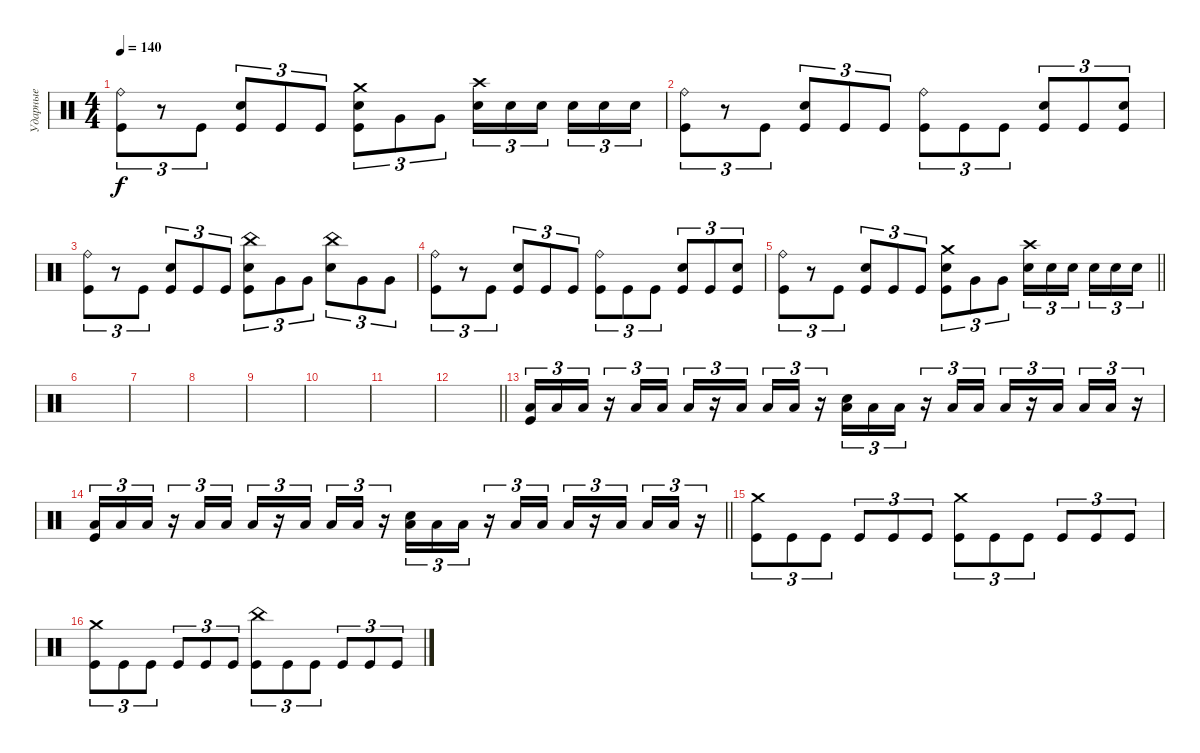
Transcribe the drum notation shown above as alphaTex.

\track ("Ударные" "Ударные") {instrument percussion}
\staff {score}
\articulation defaults
\ts (4 4)
\tempo 140
\clef neutral
\ks c
("Ride (bell)" "Kick (hit)").8{tu (3 2) dy f} r.8{tu (3 2)} "Kick (hit)".8{tu (3 2)} ("Electric Snare (hit)" "Kick (hit)").8{tu (3 2)} "Kick (hit)".8{tu (3 2)} "Kick (hit)".8{tu (3 2)} ("Electric Snare (hit)" "Kick (hit)" "Crash medium (hit)").8{tu (3 2)} "Very Low Tom (hit)".8{tu (3 2)} "Very Low Tom (hit)".8{tu (3 2)} ("Electric Snare (hit)" "Crash high (hit)").16{tu (3 2)} "Electric Snare (hit)".16{tu (3 2)} "Electric Snare (hit)".16{tu (3 2) beam splitsecondary} "Electric Snare (hit)".16{tu (3 2)} "Electric Snare (hit)".16{tu (3 2)} "Electric Snare (hit)".16{tu (3 2)} |
("Ride (bell)" "Kick (hit)").8{tu (3 2)} r.8{tu (3 2)} "Kick (hit)".8{tu (3 2)} ("Electric Snare (hit)" "Kick (hit)").8{tu (3 2)} "Kick (hit)".8{tu (3 2)} "Kick (hit)".8{tu (3 2)} ("Ride (bell)" "Kick (hit)").8{tu (3 2)} "Kick (hit)".8{tu (3 2)} "Kick (hit)".8{tu (3 2)} ("Electric Snare (hit)" "Kick (hit)").8{tu (3 2)} "Kick (hit)".8{tu (3 2)} ("Electric Snare (hit)" "Kick (hit)").8{tu (3 2)} |
("Ride (bell)" "Kick (hit)").8{tu (3 2)} r.8{tu (3 2)} "Kick (hit)".8{tu (3 2)} ("Electric Snare (hit)" "Kick (hit)").8{tu (3 2)} "Kick (hit)".8{tu (3 2)} "Kick (hit)".8{tu (3 2)} ("Electric Snare (hit)" "Kick (hit)" "China (hit)").8{tu (3 2)} "Very Low Tom (hit)".8{tu (3 2)} "Very Low Tom (hit)".8{tu (3 2)} ("Electric Snare (hit)" "China (hit)").8{tu (3 2)} "Very Low Tom (hit)".8{tu (3 2)} "Very Low Tom (hit)".8{tu (3 2)} |
("Ride (bell)" "Kick (hit)").8{tu (3 2)} r.8{tu (3 2)} "Kick (hit)".8{tu (3 2)} ("Electric Snare (hit)" "Kick (hit)").8{tu (3 2)} "Kick (hit)".8{tu (3 2)} "Kick (hit)".8{tu (3 2)} ("Ride (bell)" "Kick (hit)").8{tu (3 2)} "Kick (hit)".8{tu (3 2)} "Kick (hit)".8{tu (3 2)} ("Electric Snare (hit)" "Kick (hit)").8{tu (3 2)} "Kick (hit)".8{tu (3 2)} ("Electric Snare (hit)" "Kick (hit)").8{tu (3 2)} |
\barLineRight lightlight
("Ride (bell)" "Kick (hit)").8{tu (3 2)} r.8{tu (3 2)} "Kick (hit)".8{tu (3 2)} ("Electric Snare (hit)" "Kick (hit)").8{tu (3 2)} "Kick (hit)".8{tu (3 2)} "Kick (hit)".8{tu (3 2)} ("Electric Snare (hit)" "Kick (hit)" "Crash medium (hit)").8{tu (3 2)} "Very Low Tom (hit)".8{tu (3 2)} "Very Low Tom (hit)".8{tu (3 2)} ("Electric Snare (hit)" "Crash high (hit)").16{tu (3 2)} "Electric Snare (hit)".16{tu (3 2)} "Electric Snare (hit)".16{tu (3 2) beam splitsecondary} "Electric Snare (hit)".16{tu (3 2)} "Electric Snare (hit)".16{tu (3 2)} "Electric Snare (hit)".16{tu (3 2)} |
\section ("" " ")
|
|
|
|
|
|
\barLineRight lightlight
|
\section ("" " ")
("Low Floor Tom (hit)" "Kick (hit)").16{tu (3 2)} "Low Floor Tom (hit)".16{tu (3 2)} "Low Floor Tom (hit)".16{tu (3 2)} r.16{tu (3 2)} "Low Floor Tom (hit)".16{tu (3 2)} "Low Floor Tom (hit)".16{tu (3 2)} "Low Floor Tom (hit)".16{tu (3 2)} r.16{tu (3 2)} "Low Floor Tom (hit)".16{tu (3 2) beam splitsecondary} "Low Floor Tom (hit)".16{tu (3 2)} "Low Floor Tom (hit)".16{tu (3 2)} r.16{tu (3 2)} ("Low Floor Tom (hit)" "Electric Snare (hit)").16{tu (3 2)} "Low Floor Tom (hit)".16{tu (3 2)} "Low Floor Tom (hit)".16{tu (3 2)} r.16{tu (3 2)} "Low Floor Tom (hit)".16{tu (3 2)} "Low Floor Tom (hit)".16{tu (3 2)} "Low Floor Tom (hit)".16{tu (3 2)} r.16{tu (3 2)} "Low Floor Tom (hit)".16{tu (3 2) beam splitsecondary} "Low Floor Tom (hit)".16{tu (3 2)} "Low Floor Tom (hit)".16{tu (3 2)} r.16{tu (3 2)} |
\barLineRight lightlight
("Low Floor Tom (hit)" "Kick (hit)").16{tu (3 2)} "Low Floor Tom (hit)".16{tu (3 2)} "Low Floor Tom (hit)".16{tu (3 2)} r.16{tu (3 2)} "Low Floor Tom (hit)".16{tu (3 2)} "Low Floor Tom (hit)".16{tu (3 2)} "Low Floor Tom (hit)".16{tu (3 2)} r.16{tu (3 2)} "Low Floor Tom (hit)".16{tu (3 2) beam splitsecondary} "Low Floor Tom (hit)".16{tu (3 2)} "Low Floor Tom (hit)".16{tu (3 2)} r.16{tu (3 2)} ("Low Floor Tom (hit)" "Electric Snare (hit)").16{tu (3 2)} "Low Floor Tom (hit)".16{tu (3 2)} "Low Floor Tom (hit)".16{tu (3 2)} r.16{tu (3 2)} "Low Floor Tom (hit)".16{tu (3 2)} "Low Floor Tom (hit)".16{tu (3 2)} "Low Floor Tom (hit)".16{tu (3 2)} r.16{tu (3 2)} "Low Floor Tom (hit)".16{tu (3 2) beam splitsecondary} "Low Floor Tom (hit)".16{tu (3 2)} "Low Floor Tom (hit)".16{tu (3 2)} r.16{tu (3 2)} |
\section ("" " ")
("Crash medium (hit)" "Kick (hit)").8{tu (3 2)} "Kick (hit)".8{tu (3 2)} "Kick (hit)".8{tu (3 2)} "Kick (hit)".8{tu (3 2)} "Kick (hit)".8{tu (3 2)} "Kick (hit)".8{tu (3 2)} ("Crash medium (hit)" "Kick (hit)").8{tu (3 2)} "Kick (hit)".8{tu (3 2)} "Kick (hit)".8{tu (3 2)} "Kick (hit)".8{tu (3 2)} "Kick (hit)".8{tu (3 2)} "Kick (hit)".8{tu (3 2)} |
("Crash medium (hit)" "Kick (hit)").8{tu (3 2)} "Kick (hit)".8{tu (3 2)} "Kick (hit)".8{tu (3 2)} "Kick (hit)".8{tu (3 2)} "Kick (hit)".8{tu (3 2)} "Kick (hit)".8{tu (3 2)} ("China (hit)" "Kick (hit)").8{tu (3 2)} "Kick (hit)".8{tu (3 2)} "Kick (hit)".8{tu (3 2)} "Kick (hit)".8{tu (3 2)} "Kick (hit)".8{tu (3 2)} "Kick (hit)".8{tu (3 2)}
